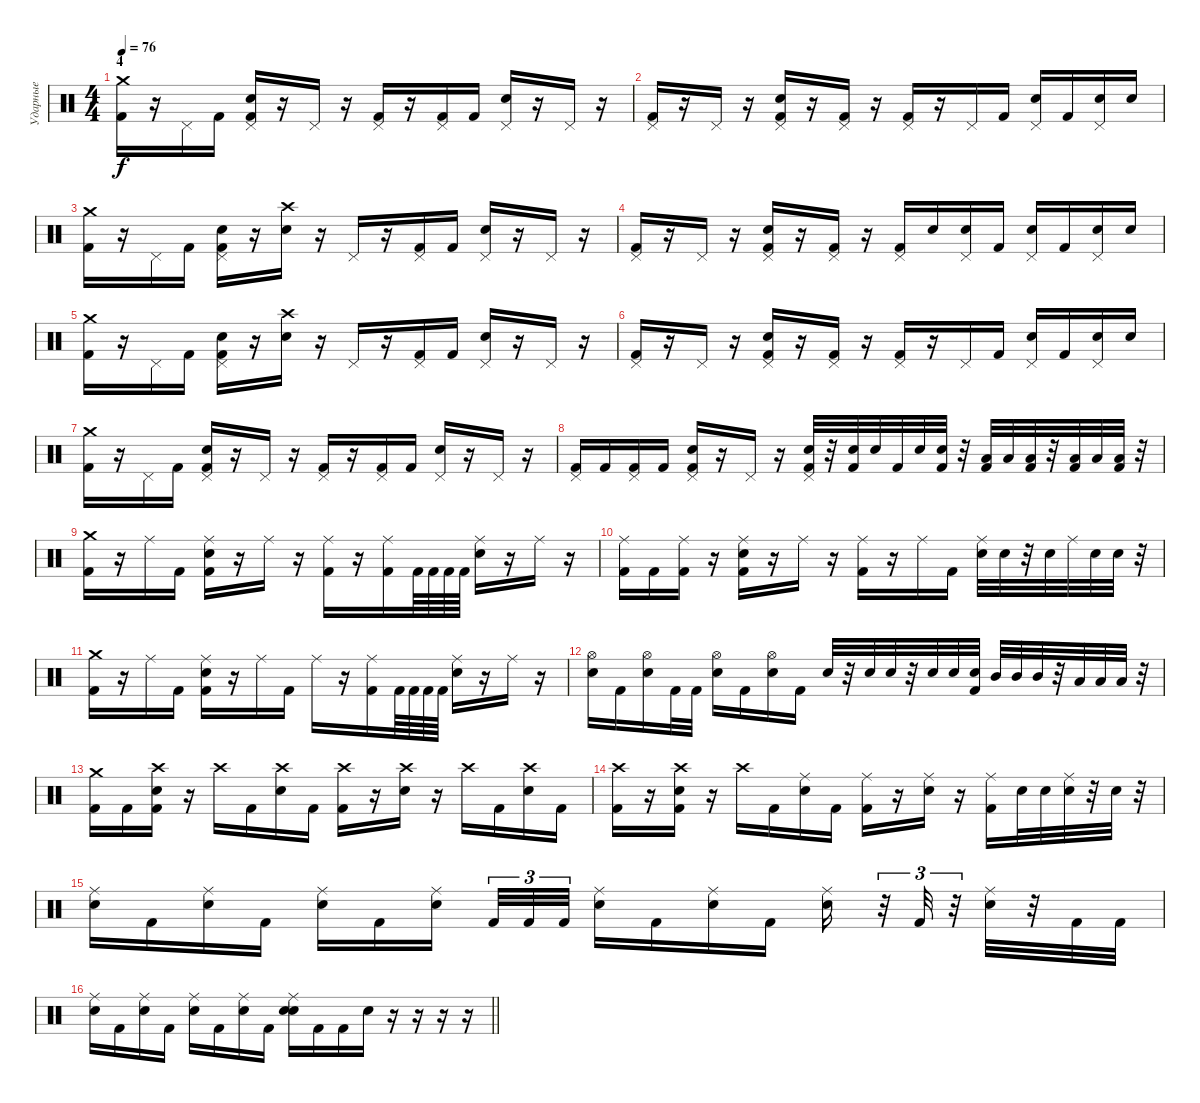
\track ("Ударные" "Ударные") {instrument percussion}
\staff {score}
\articulation defaults
\ts (4 4)
\section ("" "4")
\tempo 76
\clef neutral
\ks c
("Crash medium (hit)" "Kick (hit) 2").16{dy f} r.16 "Pedal Hi-Hat (hit)".16 "Kick (hit) 2".16 ("Pedal Hi-Hat (hit)" "Snare (hit) 2" "Kick (hit) 2").16 r.16 "Pedal Hi-Hat (hit)".16 r.16 ("Pedal Hi-Hat (hit)" "Kick (hit) 2").16 r.16 ("Pedal Hi-Hat (hit)" "Kick (hit) 2").16 "Kick (hit) 2".16 ("Pedal Hi-Hat (hit)" "Snare (hit) 2").16 r.16 "Pedal Hi-Hat (hit)".16 r.16 |
("Pedal Hi-Hat (hit)" "Kick (hit) 2").16 r.16 "Pedal Hi-Hat (hit)".16 r.16 ("Pedal Hi-Hat (hit)" "Snare (hit) 2" "Kick (hit) 2").16 r.16 ("Pedal Hi-Hat (hit)" "Kick (hit) 2").16 r.16 ("Pedal Hi-Hat (hit)" "Kick (hit) 2").16 r.16 "Pedal Hi-Hat (hit)".16 "Kick (hit) 2".16 ("Pedal Hi-Hat (hit)" "Snare (hit) 2").16 "Kick (hit) 2".16 ("Pedal Hi-Hat (hit)" "Snare (hit) 2").16 "Snare (hit) 2".16 |
("Crash medium (hit)" "Kick (hit) 2").16 r.16 "Pedal Hi-Hat (hit)".16 "Kick (hit) 2".16 ("Pedal Hi-Hat (hit)" "Snare (hit) 2" "Kick (hit) 2").16 r.16 ("Crash high (hit)" "Snare (hit) 2").16 r.16 "Pedal Hi-Hat (hit)".16 r.16 ("Pedal Hi-Hat (hit)" "Kick (hit) 2").16 "Kick (hit) 2".16 ("Pedal Hi-Hat (hit)" "Snare (hit) 2").16 r.16 "Pedal Hi-Hat (hit)".16 r.16 |
("Pedal Hi-Hat (hit)" "Kick (hit) 2").16 r.16 "Pedal Hi-Hat (hit)".16 r.16 ("Pedal Hi-Hat (hit)" "Snare (hit) 2" "Kick (hit) 2").16 r.16 ("Pedal Hi-Hat (hit)" "Kick (hit) 2").16 r.16 ("Pedal Hi-Hat (hit)" "Kick (hit) 2").16 "Snare (hit) 2".16 ("Pedal Hi-Hat (hit)" "Snare (hit) 2").16 "Kick (hit) 2".16 ("Pedal Hi-Hat (hit)" "Snare (hit) 2").16 "Kick (hit) 2".16 ("Pedal Hi-Hat (hit)" "Snare (hit) 2").16 "Snare (hit) 2".16 |
("Crash medium (hit)" "Kick (hit) 2").16 r.16 "Pedal Hi-Hat (hit)".16 "Kick (hit) 2".16 ("Pedal Hi-Hat (hit)" "Snare (hit) 2" "Kick (hit) 2").16 r.16 ("Crash high (hit)" "Snare (hit) 2").16 r.16 "Pedal Hi-Hat (hit)".16 r.16 ("Pedal Hi-Hat (hit)" "Kick (hit) 2").16 "Kick (hit) 2".16 ("Pedal Hi-Hat (hit)" "Snare (hit) 2").16 r.16 "Pedal Hi-Hat (hit)".16 r.16 |
("Pedal Hi-Hat (hit)" "Kick (hit) 2").16 r.16 "Pedal Hi-Hat (hit)".16 r.16 ("Pedal Hi-Hat (hit)" "Snare (hit) 2" "Kick (hit) 2").16 r.16 ("Pedal Hi-Hat (hit)" "Kick (hit) 2").16 r.16 ("Pedal Hi-Hat (hit)" "Kick (hit) 2").16 r.16 "Pedal Hi-Hat (hit)".16 "Kick (hit) 2".16 ("Pedal Hi-Hat (hit)" "Snare (hit) 2").16 "Kick (hit) 2".16 ("Pedal Hi-Hat (hit)" "Snare (hit) 2").16 "Snare (hit) 2".16 |
("Crash medium (hit)" "Kick (hit) 2").16 r.16 "Pedal Hi-Hat (hit)".16 "Kick (hit) 2".16 ("Pedal Hi-Hat (hit)" "Snare (hit) 2" "Kick (hit) 2").16 r.16 "Pedal Hi-Hat (hit)".16 r.16 ("Pedal Hi-Hat (hit)" "Kick (hit) 2").16 r.16 ("Pedal Hi-Hat (hit)" "Kick (hit) 2").16 "Kick (hit) 2".16 ("Pedal Hi-Hat (hit)" "Snare (hit) 2").16 r.16 "Pedal Hi-Hat (hit)".16 r.16 |
("Pedal Hi-Hat (hit)" "Kick (hit) 2").16 "Kick (hit) 2".16 ("Pedal Hi-Hat (hit)" "Kick (hit) 2").16 "Kick (hit) 2".16 ("Pedal Hi-Hat (hit)" "Snare (hit) 2" "Kick (hit) 2").16 r.16 "Pedal Hi-Hat (hit)".16 r.16 ("Pedal Hi-Hat (hit)" "Snare (hit) 2" "Kick (hit) 2").32 r.32 ("Snare (hit) 2" "Kick (hit) 2").32 "Snare (hit) 2".32 "Kick (hit) 2".32 "Snare (hit) 2".32 ("Snare (hit) 2" "Kick (hit) 2").32 r.32 ("Low Floor Tom (hit)" "Kick (hit) 2").32 "Low Floor Tom (hit)".32 ("Low Floor Tom (hit)" "Kick (hit) 2").32 r.32 ("Low Floor Tom (hit)" "Kick (hit) 2").32 "Low Floor Tom (hit)".32 ("Low Floor Tom (hit)" "Kick (hit) 2").32 r.32 |
("Crash medium (hit)" "Kick (hit) 2").16 r.16 "Ride (middle)".16 "Kick (hit) 2".16 ("Ride (middle)" "Snare (hit) 2" "Kick (hit) 2").16 r.16 "Ride (middle)".16 r.16 ("Ride (middle)" "Kick (hit) 2").16 r.16 ("Ride (middle)" "Kick (hit) 2").16 "Kick (hit) 2".64 "Kick (hit) 2".64 "Kick (hit) 2".64 "Kick (hit) 2".64 ("Ride (middle)" "Snare (hit) 2").16 r.16 "Ride (middle)".16 r.16 |
("Ride (middle)" "Kick (hit) 2").16 "Kick (hit) 2".16 ("Ride (middle)" "Kick (hit) 2").16 r.16 ("Ride (middle)" "Snare (hit) 2" "Kick (hit) 2").16 r.16 "Ride (middle)".16 r.16 ("Ride (middle)" "Kick (hit) 2").16 r.16 "Ride (middle)".16 "Kick (hit) 2".16 ("Ride (middle)" "Snare (hit) 2").32 "Snare (hit) 2".32 r.32 "Snare (hit) 2".32 "Ride (middle)".32 "Snare (hit) 2".32 "Snare (hit) 2".32 r.32 |
("Crash medium (hit)" "Kick (hit) 2").16 r.16 "Ride (middle)".16 "Kick (hit) 2".16 ("Ride (middle)" "Snare (hit) 2" "Kick (hit) 2").16 r.16 "Ride (middle)".16 "Kick (hit) 2".16 "Ride (middle)".16 r.16 ("Ride (middle)" "Kick (hit) 2").16 "Kick (hit) 2".64 "Kick (hit) 2".64 "Kick (hit) 2".64 "Kick (hit) 2".64 ("Ride (middle)" "Snare (hit) 2").16 r.16 "Ride (middle)".16 r.16 |
("Hi-Hat (open)" "Snare (hit) 2").16 "Kick (hit) 2".16 ("Hi-Hat (open)" "Snare (hit) 2").16 "Kick (hit) 2".32 "Kick (hit) 2".32 ("Hi-Hat (open)" "Snare (hit) 2").16 "Kick (hit) 2".16 ("Hi-Hat (open)" "Snare (hit) 2").16 "Kick (hit) 2".16 "Snare (hit) 2".32 r.32 "Snare (hit) 2".32 "Snare (hit) 2".32 r.32 "Snare (hit) 2".32 "Snare (hit) 2".32 ("Snare (hit) 2" "Kick (hit) 2").32 "Mid Tom (hit)".32 "Mid Tom (hit)".32 "Mid Tom (hit)".32 r.32 "Low Tom (hit)".32 "Low Tom (hit)".32 "Low Tom (hit)".32 r.32 |
("Crash medium (hit)" "Kick (hit) 2").16 "Kick (hit) 2".16 ("Crash high (hit)" "Snare (hit) 2" "Kick (hit) 2").16 r.16 "Crash high (hit)".16 "Kick (hit) 2".16 ("Crash high (hit)" "Snare (hit) 2").16 "Kick (hit) 2".16 ("Crash high (hit)" "Kick (hit) 2").16 r.16 ("Crash high (hit)" "Snare (hit) 2").16 r.16 "Crash high (hit)".16 "Kick (hit) 2".16 ("Crash high (hit)" "Snare (hit) 2").16 "Kick (hit) 2".16 |
("Crash high (hit)" "Kick (hit) 2").16 r.16 ("Crash high (hit)" "Snare (hit) 2" "Kick (hit) 2").16 r.16 "Crash high (hit)".16 "Kick (hit) 2".16 ("Ride (middle)" "Snare (hit) 2").16 "Kick (hit) 2".16 ("Ride (middle)" "Kick (hit) 2").16 r.16 ("Ride (middle)" "Snare (hit) 2").16 r.16 ("Ride (middle)" "Kick (hit) 2").16 "Snare (hit) 2".32 "Snare (hit) 2".32 ("Ride (middle)" "Snare (hit) 2").32 r.32 "Snare (hit) 2".32 r.32 |
("Ride (middle)" "Snare (hit) 2").16 "Kick (hit) 2".16 ("Ride (middle)" "Snare (hit) 2").16 "Kick (hit) 2".16 ("Ride (middle)" "Snare (hit) 2").16 "Kick (hit) 2".16 ("Ride (middle)" "Snare (hit) 2").16{beam splitsecondary} "Kick (hit) 2".32{tu (3 2)} "Kick (hit) 2".32{tu (3 2)} "Kick (hit) 2".32{tu (3 2)} ("Ride (middle)" "Snare (hit) 2").16 "Kick (hit) 2".16 ("Ride (middle)" "Snare (hit) 2").16 "Kick (hit) 2".16 ("Ride (middle)" "Snare (hit) 2").16 r.32{tu (3 2)} "Kick (hit) 2".32{tu (3 2)} r.32{tu (3 2)} ("Ride (middle)" "Snare (hit) 2").32 r.32 "Kick (hit) 2".32 "Kick (hit) 2".32 |
\barLineRight lightlight
("Ride (middle)" "Snare (hit) 2").16 "Kick (hit) 2".16 ("Ride (middle)" "Snare (hit) 2").16 "Kick (hit) 2".16 ("Ride (middle)" "Snare (hit) 2").16 "Kick (hit) 2".16 ("Ride (middle)" "Snare (hit) 2").16 "Kick (hit) 2".16 ("Ride (middle)" "Snare (hit) 2" "Snare (hit) 2").16 "Kick (hit) 2".16 "Kick (hit) 2".16 "Snare (hit) 2".16 r.16 r.16 r.16 r.16
